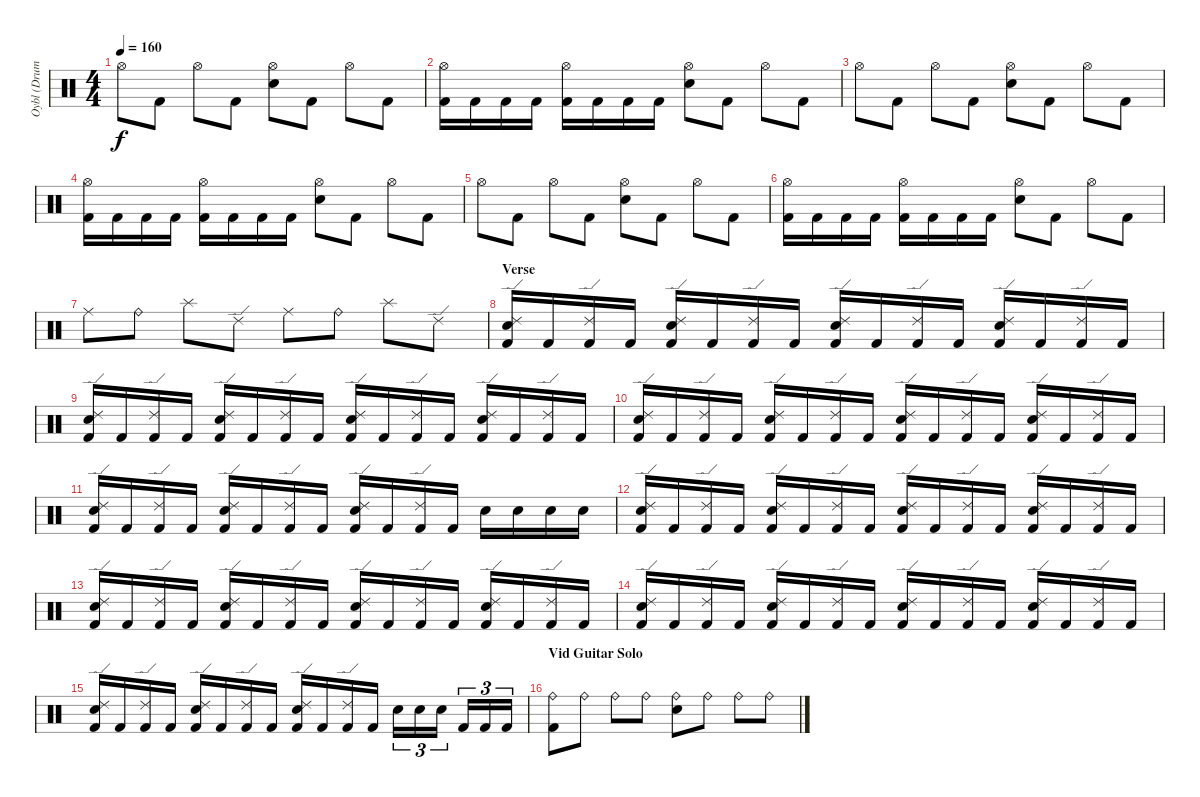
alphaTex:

\track ("Oybl (Drums)" "Oybl (Drum") {instrument percussion}
\staff {score}
\articulation defaults
\ts (4 4)
\tempo 160
\clef neutral
\ks c "Hi-Hat (open)".8{dy f} "Kick (hit) 2".8 "Hi-Hat (open)".8 "Kick (hit) 2".8
("Hi-Hat (open)" "Snare (hit) 2").8 "Kick (hit) 2".8 "Hi-Hat (open)".8 "Kick (hit) 2".8 |
("Hi-Hat (open)" "Kick (hit) 2").16 "Kick (hit) 2".16 "Kick (hit) 2".16 "Kick (hit) 2".16 ("Hi-Hat (open)" "Kick (hit) 2").16 "Kick (hit) 2".16 "Kick (hit) 2".16 "Kick (hit) 2".16 ("Hi-Hat (open)" "Snare (hit) 2").8 "Kick (hit) 2".8 "Hi-Hat (open)".8 "Kick (hit) 2".8 |
"Hi-Hat (open)".8 "Kick (hit) 2".8 "Hi-Hat (open)".8 "Kick (hit) 2".8 ("Hi-Hat (open)" "Snare (hit) 2").8 "Kick (hit) 2".8 "Hi-Hat (open)".8 "Kick (hit) 2".8 |
("Hi-Hat (open)" "Kick (hit) 2").16 "Kick (hit) 2".16 "Kick (hit) 2".16 "Kick (hit) 2".16 ("Hi-Hat (open)" "Kick (hit) 2").16 "Kick (hit) 2".16 "Kick (hit) 2".16 "Kick (hit) 2".16 ("Hi-Hat (open)" "Snare (hit) 2").8 "Kick (hit) 2".8 "Hi-Hat (open)".8 "Kick (hit) 2".8 |
"Hi-Hat (open)".8 "Kick (hit) 2".8 "Hi-Hat (open)".8 "Kick (hit) 2".8 ("Hi-Hat (open)" "Snare (hit) 2").8 "Kick (hit) 2".8 "Hi-Hat (open)".8 "Kick (hit) 2".8 |
("Hi-Hat (open)" "Kick (hit) 2").16 "Kick (hit) 2".16 "Kick (hit) 2".16 "Kick (hit) 2".16 ("Hi-Hat (open)" "Kick (hit) 2").16 "Kick (hit) 2".16 "Kick (hit) 2".16 "Kick (hit) 2".16 ("Hi-Hat (open)" "Snare (hit) 2").8 "Kick (hit) 2".8 "Hi-Hat (open)".8 "Kick (hit) 2".8 |
"Ride (middle)".8 "Ride (bell)".8 "Splash (hit)".8 "Ride (edge) 2".8 "Ride (middle)".8 "Ride (bell)".8 "Splash (hit)".8 "Ride (edge) 2".8 |
\section ("" "Verse")
("Ride (edge) 2" "Snare (hit) 2" "Kick (hit) 2").16 "Kick (hit) 2".16 ("Ride (edge) 2" "Kick (hit) 2").16 "Kick (hit) 2".16 ("Ride (edge) 2" "Snare (hit) 2" "Kick (hit) 2").16 "Kick (hit) 2".16 ("Ride (edge) 2" "Kick (hit) 2").16 "Kick (hit) 2".16 ("Ride (edge) 2" "Snare (hit) 2" "Kick (hit) 2").16 "Kick (hit) 2".16 ("Ride (edge) 2" "Kick (hit) 2").16 "Kick (hit) 2".16 ("Ride (edge) 2" "Snare (hit) 2" "Kick (hit) 2").16 "Kick (hit) 2".16 ("Ride (edge) 2" "Kick (hit) 2").16 "Kick (hit) 2".16 |
("Ride (edge) 2" "Snare (hit) 2" "Kick (hit) 2").16 "Kick (hit) 2".16 ("Ride (edge) 2" "Kick (hit) 2").16 "Kick (hit) 2".16 ("Ride (edge) 2" "Snare (hit) 2" "Kick (hit) 2").16 "Kick (hit) 2".16 ("Ride (edge) 2" "Kick (hit) 2").16 "Kick (hit) 2".16 ("Ride (edge) 2" "Snare (hit) 2" "Kick (hit) 2").16 "Kick (hit) 2".16 ("Ride (edge) 2" "Kick (hit) 2").16 "Kick (hit) 2".16 ("Ride (edge) 2" "Snare (hit) 2" "Kick (hit) 2").16 "Kick (hit) 2".16 ("Ride (edge) 2" "Kick (hit) 2").16 "Kick (hit) 2".16 |
("Ride (edge) 2" "Snare (hit) 2" "Kick (hit) 2").16 "Kick (hit) 2".16 ("Ride (edge) 2" "Kick (hit) 2").16 "Kick (hit) 2".16 ("Ride (edge) 2" "Snare (hit) 2" "Kick (hit) 2").16 "Kick (hit) 2".16 ("Ride (edge) 2" "Kick (hit) 2").16 "Kick (hit) 2".16 ("Ride (edge) 2" "Snare (hit) 2" "Kick (hit) 2").16 "Kick (hit) 2".16 ("Ride (edge) 2" "Kick (hit) 2").16 "Kick (hit) 2".16 ("Ride (edge) 2" "Snare (hit) 2" "Kick (hit) 2").16 "Kick (hit) 2".16 ("Ride (edge) 2" "Kick (hit) 2").16 "Kick (hit) 2".16 |
("Ride (edge) 2" "Snare (hit) 2" "Kick (hit) 2").16 "Kick (hit) 2".16 ("Ride (edge) 2" "Kick (hit) 2").16 "Kick (hit) 2".16 ("Ride (edge) 2" "Snare (hit) 2" "Kick (hit) 2").16 "Kick (hit) 2".16 ("Ride (edge) 2" "Kick (hit) 2").16 "Kick (hit) 2".16 ("Ride (edge) 2" "Snare (hit) 2" "Kick (hit) 2").16 "Kick (hit) 2".16 ("Ride (edge) 2" "Kick (hit) 2").16 "Kick (hit) 2".16 "Snare (hit) 2".16 "Snare (hit) 2".16 "Snare (hit) 2".16 "Snare (hit) 2".16 |
("Ride (edge) 2" "Snare (hit) 2" "Kick (hit) 2").16 "Kick (hit) 2".16 ("Ride (edge) 2" "Kick (hit) 2").16 "Kick (hit) 2".16 ("Ride (edge) 2" "Snare (hit) 2" "Kick (hit) 2").16 "Kick (hit) 2".16 ("Ride (edge) 2" "Kick (hit) 2").16 "Kick (hit) 2".16 ("Ride (edge) 2" "Snare (hit) 2" "Kick (hit) 2").16 "Kick (hit) 2".16 ("Ride (edge) 2" "Kick (hit) 2").16 "Kick (hit) 2".16 ("Ride (edge) 2" "Snare (hit) 2" "Kick (hit) 2").16 "Kick (hit) 2".16 ("Ride (edge) 2" "Kick (hit) 2").16 "Kick (hit) 2".16 |
("Ride (edge) 2" "Snare (hit) 2" "Kick (hit) 2").16 "Kick (hit) 2".16 ("Ride (edge) 2" "Kick (hit) 2").16 "Kick (hit) 2".16 ("Ride (edge) 2" "Snare (hit) 2" "Kick (hit) 2").16 "Kick (hit) 2".16 ("Ride (edge) 2" "Kick (hit) 2").16 "Kick (hit) 2".16 ("Ride (edge) 2" "Snare (hit) 2" "Kick (hit) 2").16 "Kick (hit) 2".16 ("Ride (edge) 2" "Kick (hit) 2").16 "Kick (hit) 2".16 ("Ride (edge) 2" "Snare (hit) 2" "Kick (hit) 2").16 "Kick (hit) 2".16 ("Ride (edge) 2" "Kick (hit) 2").16 "Kick (hit) 2".16 |
("Ride (edge) 2" "Snare (hit) 2" "Kick (hit) 2").16 "Kick (hit) 2".16 ("Ride (edge) 2" "Kick (hit) 2").16 "Kick (hit) 2".16 ("Ride (edge) 2" "Snare (hit) 2" "Kick (hit) 2").16 "Kick (hit) 2".16 ("Ride (edge) 2" "Kick (hit) 2").16 "Kick (hit) 2".16 ("Ride (edge) 2" "Snare (hit) 2" "Kick (hit) 2").16 "Kick (hit) 2".16 ("Ride (edge) 2" "Kick (hit) 2").16 "Kick (hit) 2".16 ("Ride (edge) 2" "Snare (hit) 2" "Kick (hit) 2").16 "Kick (hit) 2".16 ("Ride (edge) 2" "Kick (hit) 2").16 "Kick (hit) 2".16 |
("Ride (edge) 2" "Snare (hit) 2" "Kick (hit) 2").16 "Kick (hit) 2".16 ("Ride (edge) 2" "Kick (hit) 2").16 "Kick (hit) 2".16 ("Ride (edge) 2" "Snare (hit) 2" "Kick (hit) 2").16 "Kick (hit) 2".16 ("Ride (edge) 2" "Kick (hit) 2").16 "Kick (hit) 2".16 ("Ride (edge) 2" "Snare (hit) 2" "Kick (hit) 2").16 "Kick (hit) 2".16 ("Ride (edge) 2" "Kick (hit) 2").16 "Kick (hit) 2".16 "Snare (hit) 2".16{tu (3 2)} "Snare (hit) 2".16{tu (3 2)} "Snare (hit) 2".16{tu (3 2)} "Kick (hit) 2".16{tu (3 2)} "Kick (hit) 2".16{tu (3 2)} "Kick (hit) 2".16{tu (3 2)} |
\section ("" "Vid Guitar Solo")
("Ride (bell)" "Kick (hit) 2").8 "Ride (bell)".8 "Ride (bell)".8 "Ride (bell)".8 ("Ride (bell)" "Snare (hit) 2").8 "Ride (bell)".8 "Ride (bell)".8 "Ride (bell)".8
